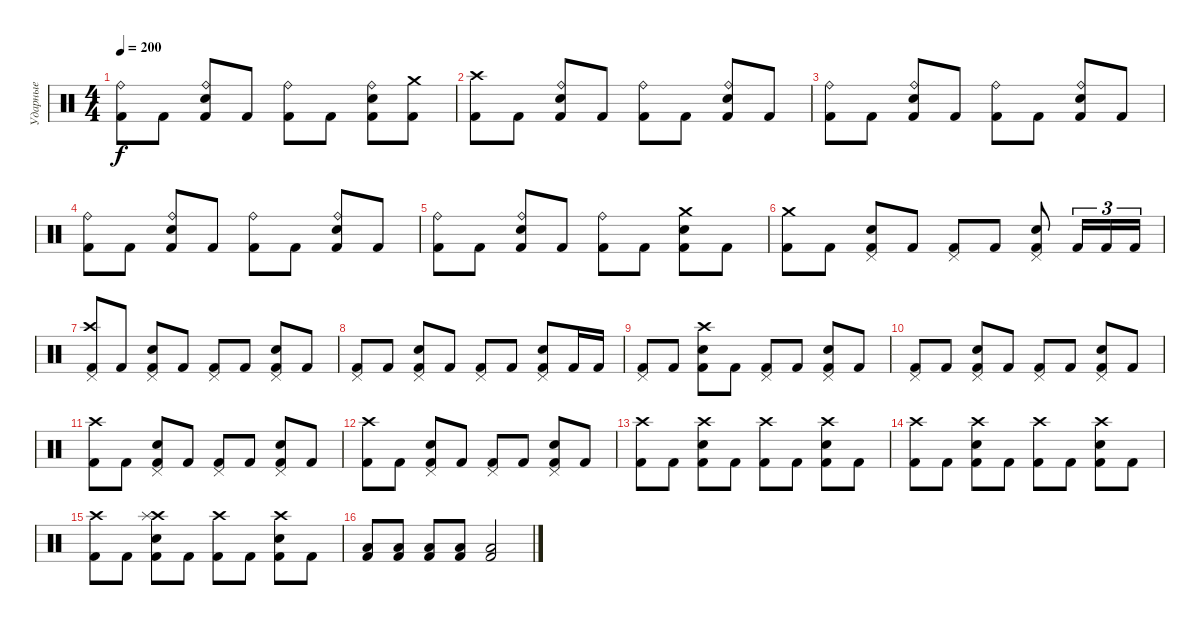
\track ("Ударные" "Ударные") {instrument percussion}
\staff
\articulation defaults
\ts (4 4)
\tempo 200
\clef neutral
\ks c
("Kick (hit) 2" "Ride (bell)").8{dy f} "Kick (hit) 2".8 ("Kick (hit) 2" "Snare (hit) 2" "Ride (bell)").8 "Kick (hit) 2".8 ("Kick (hit) 2" "Ride (bell)").8 "Kick (hit) 2".8 ("Kick (hit) 2" "Snare (hit) 2" "Ride (bell)").8 ("Kick (hit) 2" "Crash medium (hit)").8 |
("Kick (hit) 2" "Crash high (hit)").8 "Kick (hit) 2".8 ("Kick (hit) 2" "Snare (hit) 2" "Ride (bell)").8 "Kick (hit) 2".8 ("Kick (hit) 2" "Ride (bell)").8 "Kick (hit) 2".8 ("Kick (hit) 2" "Snare (hit) 2" "Ride (bell)").8 "Kick (hit) 2".8 |
("Kick (hit) 2" "Ride (bell)").8 "Kick (hit) 2".8 ("Kick (hit) 2" "Snare (hit) 2" "Ride (bell)").8 "Kick (hit) 2".8 ("Kick (hit) 2" "Ride (bell)").8 "Kick (hit) 2".8 ("Kick (hit) 2" "Snare (hit) 2" "Ride (bell)").8 "Kick (hit) 2".8 |
("Kick (hit) 2" "Ride (bell)").8 "Kick (hit) 2".8 ("Kick (hit) 2" "Snare (hit) 2" "Ride (bell)").8 "Kick (hit) 2".8 ("Kick (hit) 2" "Ride (bell)").8 "Kick (hit) 2".8 ("Kick (hit) 2" "Snare (hit) 2" "Ride (bell)").8 "Kick (hit) 2".8 |
("Kick (hit) 2" "Ride (bell)").8 "Kick (hit) 2".8 ("Kick (hit) 2" "Snare (hit) 2" "Ride (bell)").8 "Kick (hit) 2".8 ("Kick (hit) 2" "Ride (bell)").8 "Kick (hit) 2".8 ("Kick (hit) 2" "Snare (hit) 2" "Crash medium (hit)").8 "Kick (hit) 2".8 |
("Kick (hit) 2" "Crash medium (hit)").8 "Kick (hit) 2".8 ("Snare (hit) 2" "Pedal Hi-Hat (hit)" "Kick (hit) 2").8 "Kick (hit) 2".8 ("Kick (hit) 2" "Pedal Hi-Hat (hit)").8 "Kick (hit) 2".8 ("Snare (hit) 2" "Pedal Hi-Hat (hit)" "Kick (hit) 2").8 "Kick (hit) 2".16{tu (3 2)} "Kick (hit) 2".16{tu (3 2)} "Kick (hit) 2".16{tu (3 2)} |
("Kick (hit) 2" "Pedal Hi-Hat (hit)" "Crash high (hit)").8 "Kick (hit) 2".8 ("Snare (hit) 2" "Pedal Hi-Hat (hit)" "Kick (hit) 2").8 "Kick (hit) 2".8 ("Kick (hit) 2" "Pedal Hi-Hat (hit)").8 "Kick (hit) 2".8 ("Snare (hit) 2" "Pedal Hi-Hat (hit)" "Kick (hit) 2").8 "Kick (hit) 2".8 |
("Kick (hit) 2" "Pedal Hi-Hat (hit)").8 "Kick (hit) 2".8 ("Snare (hit) 2" "Pedal Hi-Hat (hit)" "Kick (hit) 2").8 "Kick (hit) 2".8 ("Kick (hit) 2" "Pedal Hi-Hat (hit)").8 "Kick (hit) 2".8 ("Snare (hit) 2" "Pedal Hi-Hat (hit)" "Kick (hit) 2").8 "Kick (hit) 2".16 "Kick (hit) 2".16 |
("Kick (hit) 2" "Pedal Hi-Hat (hit)").8 "Kick (hit) 2".8 ("Snare (hit) 2" "Crash high (hit)" "Kick (hit) 2").8 "Kick (hit) 2".8 ("Kick (hit) 2" "Pedal Hi-Hat (hit)").8 "Kick (hit) 2".8 ("Snare (hit) 2" "Pedal Hi-Hat (hit)" "Kick (hit) 2").8 "Kick (hit) 2".8 |
("Kick (hit) 2" "Pedal Hi-Hat (hit)").8 "Kick (hit) 2".8 ("Snare (hit) 2" "Pedal Hi-Hat (hit)" "Kick (hit) 2").8 "Kick (hit) 2".8 ("Kick (hit) 2" "Pedal Hi-Hat (hit)").8 "Kick (hit) 2".8 ("Snare (hit) 2" "Pedal Hi-Hat (hit)" "Kick (hit) 2").8 "Kick (hit) 2".8 |
("Kick (hit) 2" "Crash high (hit)").8 "Kick (hit) 2".8 ("Snare (hit) 2" "Pedal Hi-Hat (hit)" "Kick (hit) 2").8 "Kick (hit) 2".8 ("Kick (hit) 2" "Pedal Hi-Hat (hit)").8 "Kick (hit) 2".8 ("Snare (hit) 2" "Pedal Hi-Hat (hit)" "Kick (hit) 2").8 "Kick (hit) 2".8 |
("Kick (hit) 2" "Crash high (hit)").8 "Kick (hit) 2".8 ("Snare (hit) 2" "Pedal Hi-Hat (hit)" "Kick (hit) 2").8 "Kick (hit) 2".8 ("Kick (hit) 2" "Pedal Hi-Hat (hit)").8 "Kick (hit) 2".8 ("Snare (hit) 2" "Pedal Hi-Hat (hit)" "Kick (hit) 2").8 "Kick (hit) 2".8 |
("Kick (hit) 2" "Crash high (hit)").8 "Kick (hit) 2".8 ("Snare (hit) 2" "Crash high (hit)" "Kick (hit) 2").8 "Kick (hit) 2".8 ("Kick (hit) 2" "Crash high (hit)").8 "Kick (hit) 2".8 ("Snare (hit) 2" "Crash high (hit)" "Kick (hit) 2").8 "Kick (hit) 2".8 |
("Kick (hit) 2" "Crash high (hit)").8 "Kick (hit) 2".8 ("Snare (hit) 2" "Crash high (hit)" "Kick (hit) 2").8 "Kick (hit) 2".8 ("Kick (hit) 2" "Crash high (hit)").8 "Kick (hit) 2".8 ("Snare (hit) 2" "Crash high (hit)" "Kick (hit) 2").8 "Kick (hit) 2".8 |
("Kick (hit) 2" "Crash high (hit)").8 "Kick (hit) 2".8 ("Snare (hit) 2" "Crash high (hit)" "Kick (hit) 2" "Splash (hit)").8 "Kick (hit) 2".8 ("Kick (hit) 2" "Crash high (hit)").8 "Kick (hit) 2".8 ("Snare (hit) 2" "Crash high (hit)" "Kick (hit) 2").8 "Kick (hit) 2".8 |
("Kick (hit) 2" "Low Floor Tom (hit)").8 ("Kick (hit) 2" "Low Floor Tom (hit)").8 ("Kick (hit) 2" "Low Floor Tom (hit)").8 ("Kick (hit) 2" "Low Floor Tom (hit)").8 ("Kick (hit) 2" "Low Floor Tom (hit)").2
